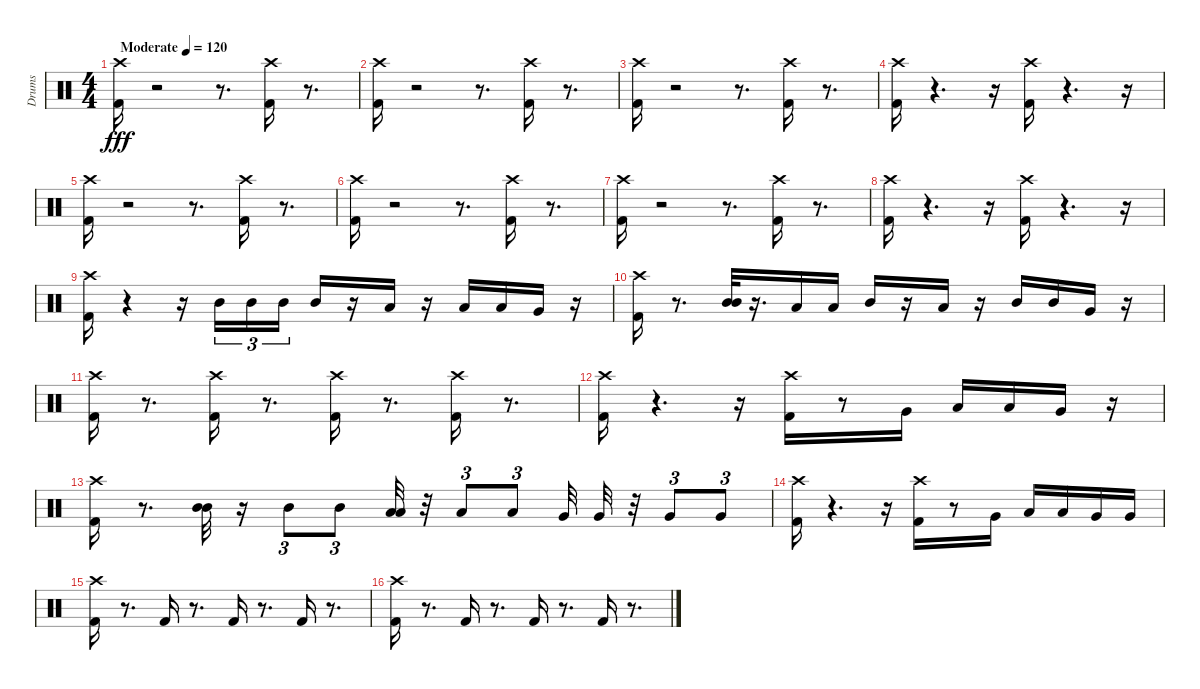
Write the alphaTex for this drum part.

\track ("Drums" "Drums") {instrument percussion}
\staff {score}
\articulation defaults
\ts (4 4)
\tempo (120 "Moderate")
\clef neutral
\ks c
("Crash high (hit)" "Kick (hit) 2").16{dy fff} r.2 r.8{d} ("Crash high (hit)" "Kick (hit) 2").16 r.8{d} |
("Kick (hit) 2" "Crash high (hit)").16 r.2 r.8{d} ("Kick (hit) 2" "Crash high (hit)").16 r.8{d} |
("Kick (hit) 2" "Crash high (hit)").16 r.2 r.8{d} ("Kick (hit) 2" "Crash high (hit)").16 r.8{d} |
("Kick (hit) 2" "Crash high (hit)").16 r.4{d} r.16 ("Crash high (hit)" "Kick (hit) 2").16 r.4{d} r.16 |
("Kick (hit) 2" "Crash high (hit)").16 r.2 r.8{d} ("Kick (hit) 2" "Crash high (hit)").16 r.8{d} |
("Crash high (hit)" "Kick (hit) 2").16 r.2 r.8{d} ("Crash high (hit)" "Kick (hit) 2").16 r.8{d} |
("Crash high (hit)" "Kick (hit) 2").16 r.2 r.8{d} ("Crash high (hit)" "Kick (hit) 2").16 r.8{d} |
("Kick (hit) 2" "Crash high (hit)").16 r.4{d} r.16 ("Kick (hit) 2" "Crash high (hit)").16 r.4{d} r.16 |
("Crash high (hit)" "Kick (hit) 2").16 r.4 r.16 "Mid Tom (hit)".16{tu (3 2)} "Mid Tom (hit)".16{tu (3 2)} "Mid Tom (hit)".16{tu (3 2)} "Mid Tom (hit)".16 r.16 "Low Tom (hit)".16 r.16 "Low Tom (hit)".16 "Low Tom (hit)".16 "Very Low Tom (hit)".16 r.16 |
("Crash high (hit)" "Kick (hit) 2").16 r.8{d} ("Mid Tom (hit)" "Mid Tom (hit)").32 r.16{d} "Low Tom (hit)".16 "Low Tom (hit)".16 "Mid Tom (hit)".16 r.16 "Low Tom (hit)".16 r.16 "Mid Tom (hit)".16 "Mid Tom (hit)".16 "Very Low Tom (hit)".16 r.16 |
("Crash high (hit)" "Kick (hit) 2").16 r.8{d} ("Crash high (hit)" "Kick (hit) 2").16 r.8{d} ("Crash high (hit)" "Kick (hit) 2").16 r.8{d} ("Crash high (hit)" "Kick (hit) 2").16 r.8{d} |
("Crash high (hit)" "Kick (hit) 2").16 r.4{d} r.16 ("Crash high (hit)" "Kick (hit) 2").16 r.8 "Very Low Tom (hit)".16 "Low Tom (hit)".16 "Low Tom (hit)".16 "Very Low Tom (hit)".16 r.16 |
("Kick (hit) 2" "Crash high (hit)").16 r.8{d} ("Mid Tom (hit)" "Mid Tom (hit)").32 r.16 "Mid Tom (hit)".8{tu (3 2)} "Mid Tom (hit)".8{tu (3 2)} ("Low Tom (hit)" "Low Tom (hit)").32 r.32 "Low Tom (hit)".8{tu (3 2)} "Low Tom (hit)".8{tu (3 2)} "Very Low Tom (hit)".32 "Very Low Tom (hit)".32 r.32 "Very Low Tom (hit)".8{tu (3 2)} "Very Low Tom (hit)".8{tu (3 2)} |
("Crash high (hit)" "Kick (hit) 2").16 r.4{d} r.16 ("Crash high (hit)" "Kick (hit) 2").16 r.8 "Very Low Tom (hit)".16 "Low Tom (hit)".16 "Low Tom (hit)".16 "Very Low Tom (hit)".16 "Very Low Tom (hit)".16 |
("Crash high (hit)" "Kick (hit) 2").16 r.8{d} "Kick (hit) 2".16 r.8{d} "Kick (hit) 2".16 r.8{d} "Kick (hit) 2".16 r.8{d} |
("Kick (hit) 2" "Crash high (hit)").16 r.8{d} "Kick (hit) 2".16 r.8{d} "Kick (hit) 2".16 r.8{d} "Kick (hit) 2".16 r.8{d}
